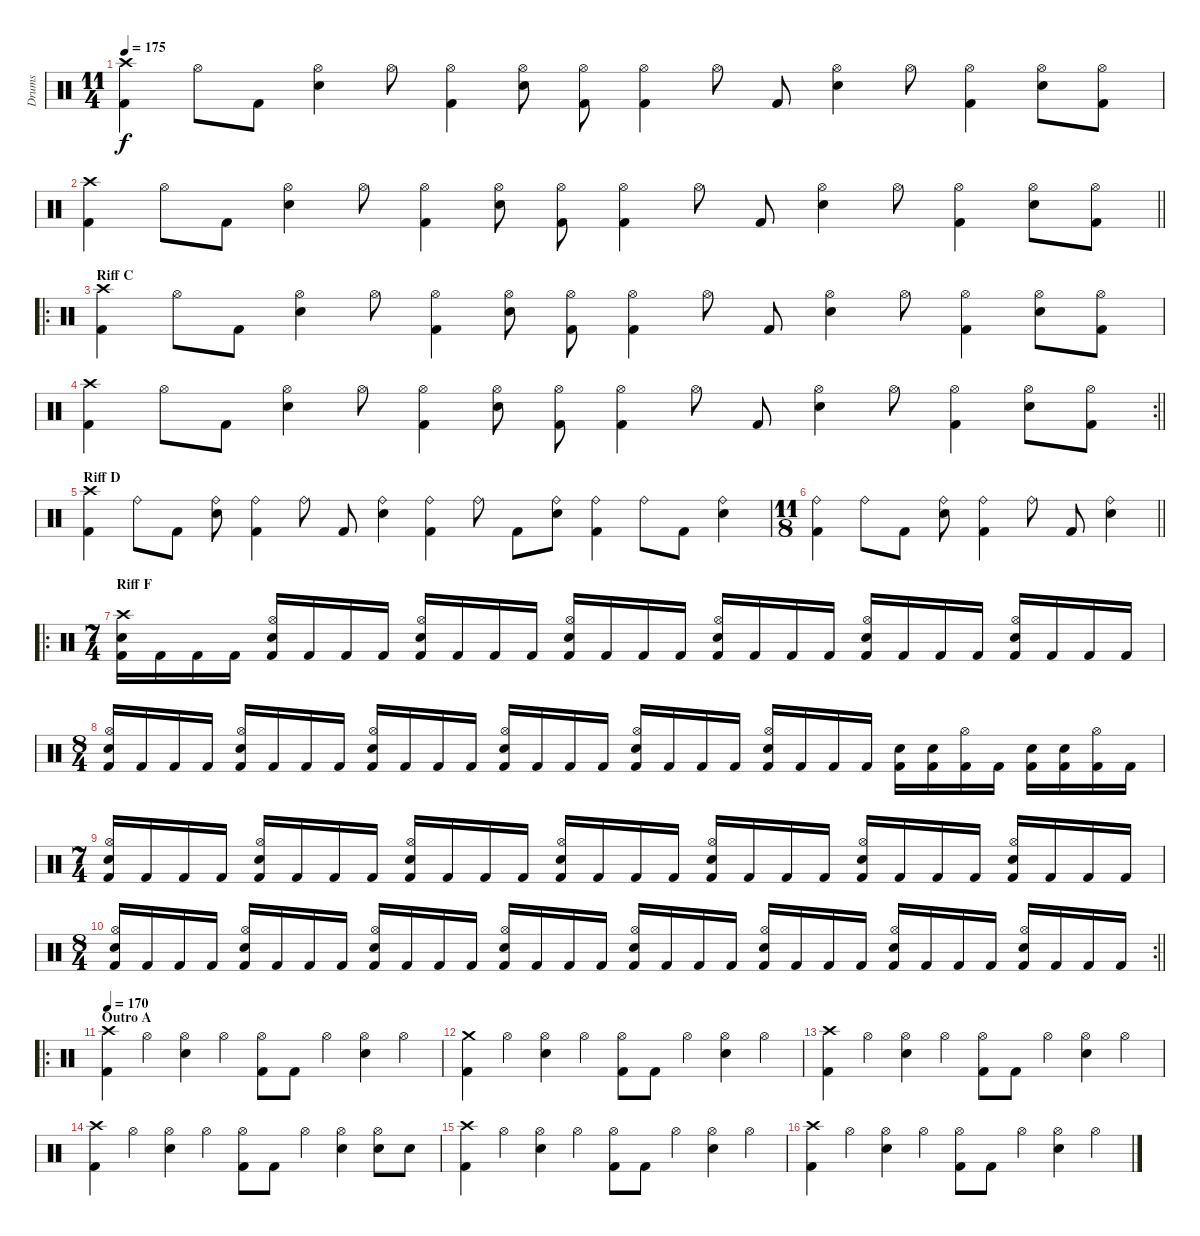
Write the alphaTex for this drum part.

\track ("Drums" "Drums") {instrument percussion}
\staff {score}
\articulation defaults
\ts (11 4)
\tempo 175
\clef neutral
\ks c
("Crash high (hit)" "Kick (hit) 2").4{dy f} "Hi-Hat (open)".8 "Kick (hit) 2".8 ("Hi-Hat (open)" "Snare (hit) 2").4 "Hi-Hat (open)".8 ("Hi-Hat (open)" "Kick (hit) 2").4 ("Hi-Hat (open)" "Snare (hit) 2").8 ("Hi-Hat (open)" "Kick (hit) 2").8 ("Hi-Hat (open)" "Kick (hit) 2").4 "Hi-Hat (open)".8 "Kick (hit) 2".8 ("Hi-Hat (open)" "Snare (hit) 2").4 "Hi-Hat (open)".8 ("Hi-Hat (open)" "Kick (hit) 2").4 ("Hi-Hat (open)" "Snare (hit) 2").8 ("Hi-Hat (open)" "Kick (hit) 2").8 |
\barLineRight lightlight
("Crash high (hit)" "Kick (hit) 2").4 "Hi-Hat (open)".8 "Kick (hit) 2".8 ("Hi-Hat (open)" "Snare (hit) 2").4 "Hi-Hat (open)".8 ("Hi-Hat (open)" "Kick (hit) 2").4 ("Hi-Hat (open)" "Snare (hit) 2").8 ("Hi-Hat (open)" "Kick (hit) 2").8 ("Hi-Hat (open)" "Kick (hit) 2").4 "Hi-Hat (open)".8 "Kick (hit) 2".8 ("Hi-Hat (open)" "Snare (hit) 2").4 "Hi-Hat (open)".8 ("Hi-Hat (open)" "Kick (hit) 2").4 ("Hi-Hat (open)" "Snare (hit) 2").8 ("Hi-Hat (open)" "Kick (hit) 2").8 |
\ro
\section ("" "Riff C")
("Crash high (hit)" "Kick (hit) 2").4 "Hi-Hat (open)".8 "Kick (hit) 2".8 ("Hi-Hat (open)" "Snare (hit) 2").4 "Hi-Hat (open)".8 ("Hi-Hat (open)" "Kick (hit) 2").4 ("Hi-Hat (open)" "Snare (hit) 2").8 ("Hi-Hat (open)" "Kick (hit) 2").8 ("Hi-Hat (open)" "Kick (hit) 2").4 "Hi-Hat (open)".8 "Kick (hit) 2".8 ("Hi-Hat (open)" "Snare (hit) 2").4 "Hi-Hat (open)".8 ("Hi-Hat (open)" "Kick (hit) 2").4 ("Hi-Hat (open)" "Snare (hit) 2").8 ("Hi-Hat (open)" "Kick (hit) 2").8 |
\rc 2
\barLineRight lightlight
("Crash high (hit)" "Kick (hit) 2").4 "Hi-Hat (open)".8 "Kick (hit) 2".8 ("Hi-Hat (open)" "Snare (hit) 2").4 "Hi-Hat (open)".8 ("Hi-Hat (open)" "Kick (hit) 2").4 ("Hi-Hat (open)" "Snare (hit) 2").8 ("Hi-Hat (open)" "Kick (hit) 2").8 ("Hi-Hat (open)" "Kick (hit) 2").4 "Hi-Hat (open)".8 "Kick (hit) 2".8 ("Hi-Hat (open)" "Snare (hit) 2").4 "Hi-Hat (open)".8 ("Hi-Hat (open)" "Kick (hit) 2").4 ("Hi-Hat (open)" "Snare (hit) 2").8 ("Hi-Hat (open)" "Kick (hit) 2").8 |
\section ("" "Riff D")
("Crash high (hit)" "Kick (hit) 2").4 "Ride (bell)".8 "Kick (hit) 2".8 ("Ride (bell)" "Snare (hit) 2").8 ("Ride (bell)" "Kick (hit) 2").4 "Ride (bell)".8 "Kick (hit) 2".8 ("Ride (bell)" "Snare (hit) 2").4 ("Ride (bell)" "Kick (hit) 2").4 "Ride (bell)".8 "Kick (hit) 2".8 ("Ride (bell)" "Snare (hit) 2").8 ("Ride (bell)" "Kick (hit) 2").4 "Ride (bell)".8 "Kick (hit) 2".8 ("Ride (bell)" "Snare (hit) 2").4 |
\ts (11 8)
\barLineRight lightlight
("Ride (bell)" "Kick (hit) 2").4 "Ride (bell)".8 "Kick (hit) 2".8 ("Ride (bell)" "Snare (hit) 2").8 ("Ride (bell)" "Kick (hit) 2").4 "Ride (bell)".8 "Kick (hit) 2".8 ("Ride (bell)" "Snare (hit) 2").4 |
\ro
\ts (7 4)
\section ("" "Riff F")
("Kick (hit) 2" "Snare (hit) 2" "Crash high (hit)").16 "Kick (hit) 2".16 "Kick (hit) 2".16 "Kick (hit) 2".16 ("Kick (hit) 2" "Snare (hit) 2" "Hi-Hat (open)").16 "Kick (hit) 2".16 "Kick (hit) 2".16 "Kick (hit) 2".16 ("Kick (hit) 2" "Hi-Hat (open)" "Snare (hit) 2").16 "Kick (hit) 2".16 "Kick (hit) 2".16 "Kick (hit) 2".16 ("Kick (hit) 2" "Hi-Hat (open)" "Snare (hit) 2").16 "Kick (hit) 2".16 "Kick (hit) 2".16 "Kick (hit) 2".16 ("Kick (hit) 2" "Hi-Hat (open)" "Snare (hit) 2").16 "Kick (hit) 2".16 "Kick (hit) 2".16 "Kick (hit) 2".16 ("Kick (hit) 2" "Snare (hit) 2" "Hi-Hat (open)").16 "Kick (hit) 2".16 "Kick (hit) 2".16 "Kick (hit) 2".16 ("Kick (hit) 2" "Hi-Hat (open)" "Snare (hit) 2").16 "Kick (hit) 2".16 "Kick (hit) 2".16 "Kick (hit) 2".16 |
\ts (8 4)
("Kick (hit) 2" "Hi-Hat (open)" "Snare (hit) 2").16 "Kick (hit) 2".16 "Kick (hit) 2".16 "Kick (hit) 2".16 ("Kick (hit) 2" "Hi-Hat (open)" "Snare (hit) 2").16 "Kick (hit) 2".16 "Kick (hit) 2".16 "Kick (hit) 2".16 ("Kick (hit) 2" "Hi-Hat (open)" "Snare (hit) 2").16 "Kick (hit) 2".16 "Kick (hit) 2".16 "Kick (hit) 2".16 ("Kick (hit) 2" "Hi-Hat (open)" "Snare (hit) 2").16 "Kick (hit) 2".16 "Kick (hit) 2".16 "Kick (hit) 2".16 ("Kick (hit) 2" "Hi-Hat (open)" "Snare (hit) 2").16 "Kick (hit) 2".16 "Kick (hit) 2".16 "Kick (hit) 2".16 ("Kick (hit) 2" "Hi-Hat (open)" "Snare (hit) 2").16 "Kick (hit) 2".16 "Kick (hit) 2".16 "Kick (hit) 2".16 ("Kick (hit) 2" "Snare (hit) 2").16 ("Kick (hit) 2" "Snare (hit) 2").16 ("Kick (hit) 2" "Hi-Hat (open)").16 "Kick (hit) 2".16 ("Kick (hit) 2" "Snare (hit) 2").16 ("Kick (hit) 2" "Snare (hit) 2").16 ("Kick (hit) 2" "Hi-Hat (open)").16 "Kick (hit) 2".16 |
\ts (7 4)
("Kick (hit) 2" "Snare (hit) 2" "Hi-Hat (open)").16 "Kick (hit) 2".16 "Kick (hit) 2".16 "Kick (hit) 2".16 ("Kick (hit) 2" "Snare (hit) 2" "Hi-Hat (open)").16 "Kick (hit) 2".16 "Kick (hit) 2".16 "Kick (hit) 2".16 ("Kick (hit) 2" "Hi-Hat (open)" "Snare (hit) 2").16 "Kick (hit) 2".16 "Kick (hit) 2".16 "Kick (hit) 2".16 ("Kick (hit) 2" "Hi-Hat (open)" "Snare (hit) 2").16 "Kick (hit) 2".16 "Kick (hit) 2".16 "Kick (hit) 2".16 ("Kick (hit) 2" "Hi-Hat (open)" "Snare (hit) 2").16 "Kick (hit) 2".16 "Kick (hit) 2".16 "Kick (hit) 2".16 ("Kick (hit) 2" "Snare (hit) 2" "Hi-Hat (open)").16 "Kick (hit) 2".16 "Kick (hit) 2".16 "Kick (hit) 2".16 ("Kick (hit) 2" "Hi-Hat (open)" "Snare (hit) 2").16 "Kick (hit) 2".16 "Kick (hit) 2".16 "Kick (hit) 2".16 |
\rc 2
\ts (8 4)
\barLineRight lightlight
("Kick (hit) 2" "Snare (hit) 2" "Hi-Hat (open)").16 "Kick (hit) 2".16 "Kick (hit) 2".16 "Kick (hit) 2".16 ("Kick (hit) 2" "Snare (hit) 2" "Hi-Hat (open)").16 "Kick (hit) 2".16 "Kick (hit) 2".16 "Kick (hit) 2".16 ("Kick (hit) 2" "Hi-Hat (open)" "Snare (hit) 2").16 "Kick (hit) 2".16 "Kick (hit) 2".16 "Kick (hit) 2".16 ("Kick (hit) 2" "Hi-Hat (open)" "Snare (hit) 2").16 "Kick (hit) 2".16 "Kick (hit) 2".16 "Kick (hit) 2".16 ("Kick (hit) 2" "Hi-Hat (open)" "Snare (hit) 2").16 "Kick (hit) 2".16 "Kick (hit) 2".16 "Kick (hit) 2".16 ("Kick (hit) 2" "Snare (hit) 2" "Hi-Hat (open)").16 "Kick (hit) 2".16 "Kick (hit) 2".16 "Kick (hit) 2".16 ("Kick (hit) 2" "Hi-Hat (open)" "Snare (hit) 2").16 "Kick (hit) 2".16 "Kick (hit) 2".16 "Kick (hit) 2".16 ("Kick (hit) 2" "Snare (hit) 2" "Hi-Hat (open)").16 "Kick (hit) 2".16 "Kick (hit) 2".16 "Kick (hit) 2".16 |
\ro
\section ("" "Outro A")
\tempo 170
("Crash high (hit)" "Kick (hit) 2").4 "Hi-Hat (open)".4 ("Hi-Hat (open)" "Snare (hit) 2").4 "Hi-Hat (open)".4 ("Hi-Hat (open)" "Kick (hit) 2").8 "Kick (hit) 2".8 "Hi-Hat (open)".4 ("Hi-Hat (open)" "Snare (hit) 2").4 "Hi-Hat (open)".4 |
("Crash medium (hit)" "Kick (hit) 2").4 "Hi-Hat (open)".4 ("Hi-Hat (open)" "Snare (hit) 2").4 "Hi-Hat (open)".4 ("Hi-Hat (open)" "Kick (hit) 2").8 "Kick (hit) 2".8 "Hi-Hat (open)".4 ("Hi-Hat (open)" "Snare (hit) 2").4 "Hi-Hat (open)".4 |
("Crash high (hit)" "Kick (hit) 2").4 "Hi-Hat (open)".4 ("Hi-Hat (open)" "Snare (hit) 2").4 "Hi-Hat (open)".4 ("Hi-Hat (open)" "Kick (hit) 2").8 "Kick (hit) 2".8 "Hi-Hat (open)".4 ("Hi-Hat (open)" "Snare (hit) 2").4 "Hi-Hat (open)".4 |
("Crash high (hit)" "Kick (hit) 2").4 "Hi-Hat (open)".4 ("Hi-Hat (open)" "Snare (hit) 2").4 "Hi-Hat (open)".4 ("Hi-Hat (open)" "Kick (hit) 2").8 "Kick (hit) 2".8 "Hi-Hat (open)".4 ("Hi-Hat (open)" "Snare (hit) 2").4 ("Hi-Hat (open)" "Snare (hit) 2").8 "Snare (hit) 2".8 |
("Crash high (hit)" "Kick (hit) 2").4 "Hi-Hat (open)".4 ("Hi-Hat (open)" "Snare (hit) 2").4 "Hi-Hat (open)".4 ("Hi-Hat (open)" "Kick (hit) 2").8 "Kick (hit) 2".8 "Hi-Hat (open)".4 ("Hi-Hat (open)" "Snare (hit) 2").4 "Hi-Hat (open)".4 |
("Crash high (hit)" "Kick (hit) 2").4 "Hi-Hat (open)".4 ("Hi-Hat (open)" "Snare (hit) 2").4 "Hi-Hat (open)".4 ("Hi-Hat (open)" "Kick (hit) 2").8 "Kick (hit) 2".8 "Hi-Hat (open)".4 ("Hi-Hat (open)" "Snare (hit) 2").4 "Hi-Hat (open)".4
